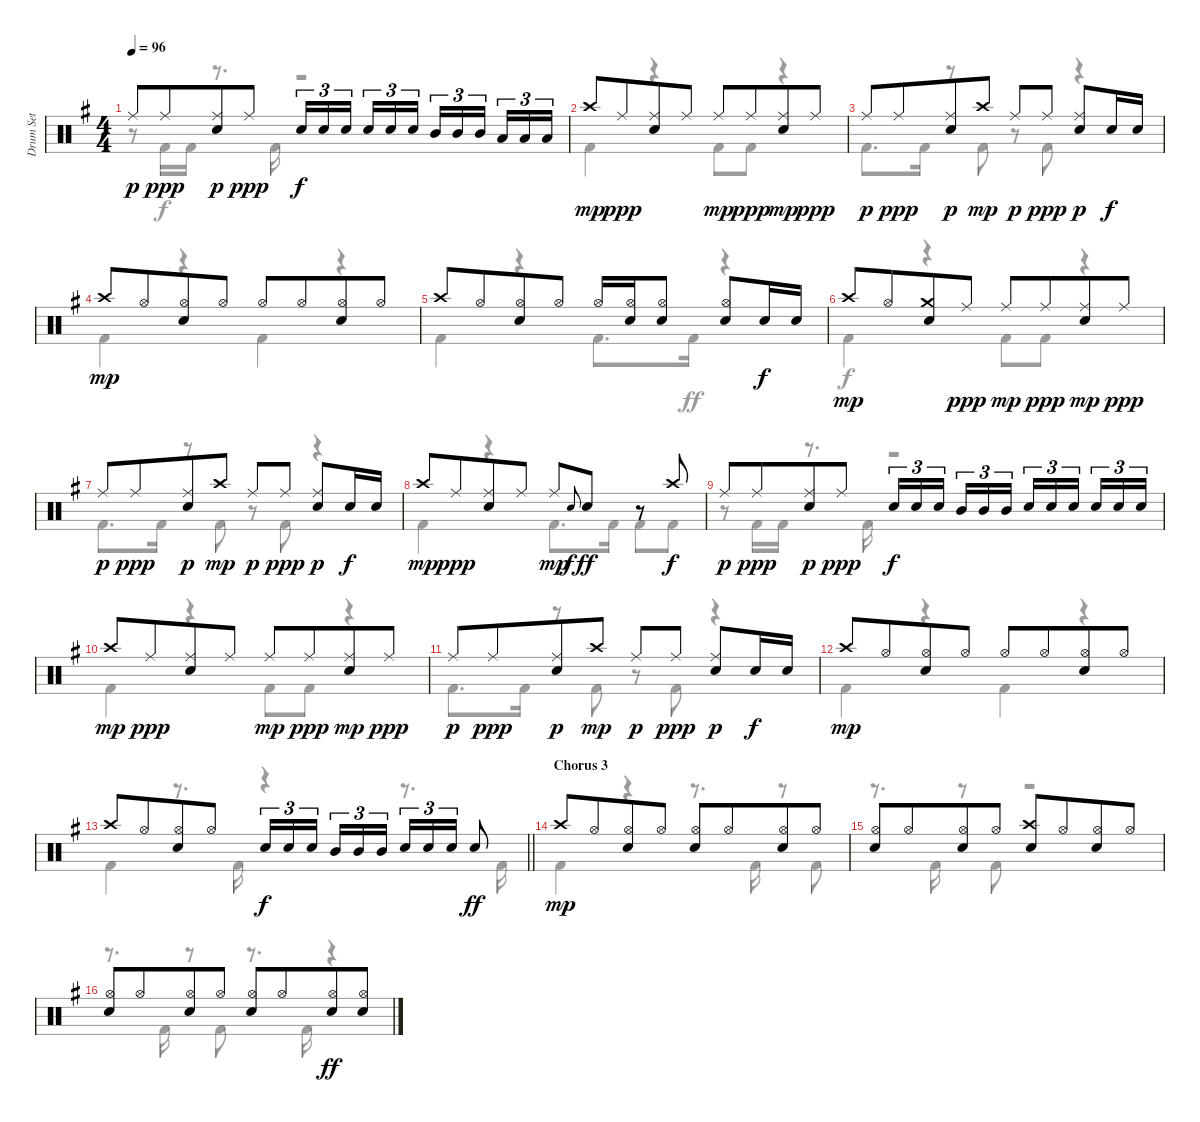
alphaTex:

\track ("Drum Set" "Drum Set") {instrument percussion}
\staff {score}
\articulation defaults
\voice
\ts (4 4)
\tempo 96
\clef neutral
\ks g "Ride (middle)".8{dy p} "Ride (middle)".8{dy ppp beam merge}
("Ride (middle)" "Electric Snare (hit)").8{dy p} "Ride (middle)".8{dy ppp} "Electric Snare (hit)".16{tu (3 2) dy f} "Electric Snare (hit)".16{tu (3 2)} "Electric Snare (hit)".16{tu (3 2) beam splitsecondary} "Electric Snare (hit)".16{tu (3 2)} "Electric Snare (hit)".16{tu (3 2)} "Electric Snare (hit)".16{tu (3 2)} "Mid Tom (hit)".16{tu (3 2)} "Mid Tom (hit)".16{tu (3 2)} "Mid Tom (hit)".16{tu (3 2) beam splitsecondary} "Low Tom (hit)".16{tu (3 2)} "Low Tom (hit)".16{tu (3 2)} "Low Tom (hit)".16{tu (3 2)} |
"Crash high (hit)".8{dy mp} "Ride (middle)".8{dy ppp beam merge} ("Electric Snare (hit)" "Ride (middle)").8 "Ride (middle)".8 "Ride (middle)".8{dy mp} "Ride (middle)".8{dy ppp beam merge} ("Ride (middle)" "Electric Snare (hit)").8{dy mp} "Ride (middle)".8{dy ppp} |
"Ride (middle)".8{dy p} "Ride (middle)".8{dy ppp beam merge} ("Ride (middle)" "Electric Snare (hit)").8{dy p} "Crash high (hit)".8{dy mp} "Ride (middle)".8{dy p} "Ride (middle)".8{dy ppp} ("Ride (middle)" "Electric Snare (hit)").8{dy p} "Electric Snare (hit)".16{dy f} "Electric Snare (hit)".16 |
"Crash high (hit)".8{dy mp} "Hi-Hat (open)".8{beam merge} ("Hi-Hat (open)" "Electric Snare (hit)").8 "Hi-Hat (open)".8 "Hi-Hat (open)".8 "Hi-Hat (open)".8{beam merge} ("Hi-Hat (open)" "Electric Snare (hit)").8 "Hi-Hat (open)".8 |
"Crash high (hit)".8 "Hi-Hat (open)".8{beam merge} ("Hi-Hat (open)" "Electric Snare (hit)").8 "Hi-Hat (open)".8 "Hi-Hat (open)".16 ("Electric Snare (hit)" "Hi-Hat (open)").16 ("Electric Snare (hit)" "Hi-Hat (open)").8 ("Electric Snare (hit)" "Hi-Hat (open)").8 "Electric Snare (hit)".16{dy f} "Electric Snare (hit)".16 |
"Crash high (hit)".8{dy mp} "Hi-Hat (open)".8{beam merge} ("Electric Snare (hit)" "Crash medium (hit)").8 "Ride (middle)".8{dy ppp} "Ride (middle)".8{dy mp} "Ride (middle)".8{dy ppp beam merge} ("Ride (middle)" "Electric Snare (hit)").8{dy mp} "Ride (middle)".8{dy ppp} |
"Ride (middle)".8{dy p} "Ride (middle)".8{dy ppp beam merge} ("Ride (middle)" "Electric Snare (hit)").8{dy p} "Crash high (hit)".8{dy mp} "Ride (middle)".8{dy p} "Ride (middle)".8{dy ppp} ("Ride (middle)" "Electric Snare (hit)").8{dy p} "Electric Snare (hit)".16{dy f} "Electric Snare (hit)".16 |
"Crash high (hit)".8{dy mp} "Ride (middle)".8{dy ppp beam merge} ("Electric Snare (hit)" "Ride (middle)").8 "Ride (middle)".8 "Ride (middle)".8{dy mp} "Electric Snare (hit)".8{gr onbeat dy f} "Electric Snare (hit)".8{dy ff} r.8 "Crash high (hit)".8{dy f} |
"Ride (middle)".8{dy p} "Ride (middle)".8{dy ppp beam merge} ("Ride (middle)" "Electric Snare (hit)").8{dy p} "Ride (middle)".8{dy ppp} "Electric Snare (hit)".16{tu (3 2) dy f} "Electric Snare (hit)".16{tu (3 2)} "Electric Snare (hit)".16{tu (3 2) beam splitsecondary} "Mid Tom (hit)".16{tu (3 2)} "Mid Tom (hit)".16{tu (3 2)} "Mid Tom (hit)".16{tu (3 2)} "Electric Snare (hit)".16{tu (3 2)} "Electric Snare (hit)".16{tu (3 2)} "Electric Snare (hit)".16{tu (3 2) beam splitsecondary} "Electric Snare (hit)".16{tu (3 2)} "Electric Snare (hit)".16{tu (3 2)} "Electric Snare (hit)".16{tu (3 2)} |
"Crash high (hit)".8{dy mp} "Ride (middle)".8{dy ppp beam merge} ("Electric Snare (hit)" "Ride (middle)").8 "Ride (middle)".8 "Ride (middle)".8{dy mp} "Ride (middle)".8{dy ppp beam merge} ("Ride (middle)" "Electric Snare (hit)").8{dy mp} "Ride (middle)".8{dy ppp} |
"Ride (middle)".8{dy p} "Ride (middle)".8{dy ppp beam merge} ("Ride (middle)" "Electric Snare (hit)").8{dy p} "Crash high (hit)".8{dy mp} "Ride (middle)".8{dy p} "Ride (middle)".8{dy ppp} ("Ride (middle)" "Electric Snare (hit)").8{dy p} "Electric Snare (hit)".16{dy f} "Electric Snare (hit)".16 |
"Crash high (hit)".8{dy mp} "Hi-Hat (open)".8{beam merge} ("Hi-Hat (open)" "Electric Snare (hit)").8 "Hi-Hat (open)".8 "Hi-Hat (open)".8 "Hi-Hat (open)".8{beam merge} ("Hi-Hat (open)" "Electric Snare (hit)").8 "Hi-Hat (open)".8 |
\barLineRight lightlight "Crash high (hit)".8 "Hi-Hat (open)".8{beam merge}
("Hi-Hat (open)" "Electric Snare (hit)").8 "Hi-Hat (open)".8 "Electric Snare (hit)".16{tu (3 2) dy f} "Electric Snare (hit)".16{tu (3 2)} "Electric Snare (hit)".16{tu (3 2) beam splitsecondary} "Mid Tom (hit)".16{tu (3 2)} "Mid Tom (hit)".16{tu (3 2)} "Mid Tom (hit)".16{tu (3 2)} "Electric Snare (hit)".16{tu (3 2)} "Electric Snare (hit)".16{tu (3 2)} "Electric Snare (hit)".16{tu (3 2)} "Electric Snare (hit)".8{dy ff} |
\section ("" "Chorus 3")
"Crash high (hit)".8{dy mp} "Hi-Hat (open)".8{beam merge} ("Hi-Hat (open)" "Electric Snare (hit)").8 "Hi-Hat (open)".8 ("Hi-Hat (open)" "Electric Snare (hit)").8 "Hi-Hat (open)".8{beam merge} ("Hi-Hat (open)" "Electric Snare (hit)").8 "Hi-Hat (open)".8 |
("Hi-Hat (open)" "Electric Snare (hit)").8 "Hi-Hat (open)".8{beam merge} ("Electric Snare (hit)" "Hi-Hat (open)").8 "Hi-Hat (open)".8 ("Crash high (hit)" "Electric Snare (hit)").8 "Hi-Hat (open)".8{beam merge} ("Hi-Hat (open)" "Electric Snare (hit)").8 "Hi-Hat (open)".8 |
("Hi-Hat (open)" "Electric Snare (hit)").8 "Hi-Hat (open)".8{beam merge} ("Hi-Hat (open)" "Electric Snare (hit)").8 "Hi-Hat (open)".8 ("Hi-Hat (open)" "Electric Snare (hit)").8 "Hi-Hat (open)".8{beam merge} ("Hi-Hat (open)" "Electric Snare (hit)").8{dy ff} ("Hi-Hat (open)" "Electric Snare (hit)").8
\voice
\clef neutral
\ottava regular
\simile none
\ks g
r.8{dy f} "Kick (hit) 2".16 "Kick (hit) 2".16 r.8{d} "Kick (hit) 2".16 r.2 |
"Kick (hit) 2".4 r.4 "Kick (hit) 2".8 "Kick (hit) 2".8 r.4 |
"Kick (hit) 2".8{d} "Kick (hit) 2".16 r.8 "Kick (hit) 2".8 r.8 "Kick (hit) 2".8 r.4 |
"Kick (hit) 2".4 r.4 "Kick (hit) 2".4 r.4 |
"Kick (hit) 2".4 r.4 "Kick (hit) 2".8{d} "Kick (hit) 2".16{dy ff} r.4 |
"Kick (hit) 2".4{dy f} r.4 "Kick (hit) 2".8 "Kick (hit) 2".8 r.4 |
"Kick (hit) 2".8{d} "Kick (hit) 2".16 r.8 "Kick (hit) 2".8 r.8 "Kick (hit) 2".8 r.4 |
"Kick (hit) 2".4 r.4 "Kick (hit) 2".8{d} "Kick (hit) 2".16 "Kick (hit) 2".8 "Kick (hit) 2".8 |
r.8 "Kick (hit) 2".16 "Kick (hit) 2".16 r.8{d} "Kick (hit) 2".16 r.2 |
"Kick (hit) 2".4 r.4 "Kick (hit) 2".8 "Kick (hit) 2".8 r.4 |
"Kick (hit) 2".8{d} "Kick (hit) 2".16 r.8 "Kick (hit) 2".8 r.8 "Kick (hit) 2".8 r.4 |
"Kick (hit) 2".4 r.4 "Kick (hit) 2".4 r.4 |
\barLineRight lightlight "Kick (hit) 2".4
r.8{d} "Kick (hit) 2".16 r.4 r.8{d} "Kick (hit) 2".16 |
"Kick (hit) 2".4 r.4 r.8{d} "Kick (hit) 2".16 r.8 "Kick (hit) 2".8 |
r.8{d} "Kick (hit) 2".16 r.8 "Kick (hit) 2".8 r.2 |
r.8{d} "Kick (hit) 2".16 r.8 "Kick (hit) 2".8 r.8{d} "Kick (hit) 2".16 r.4
